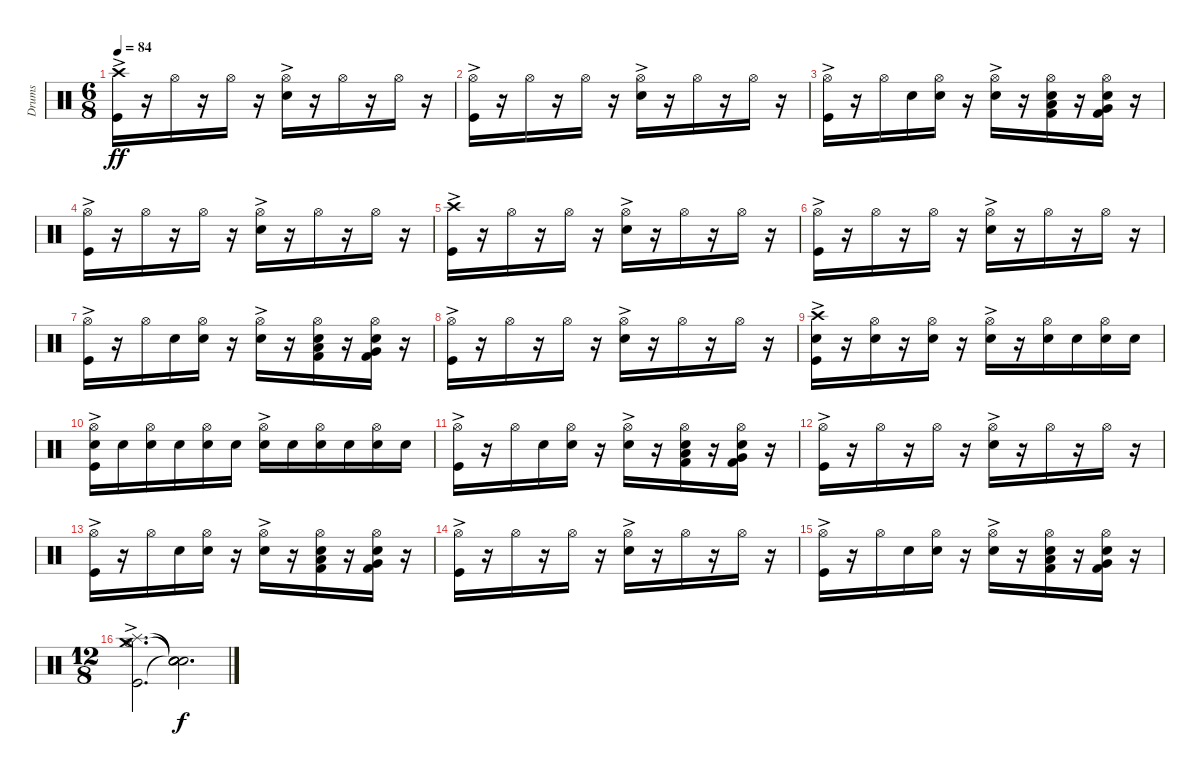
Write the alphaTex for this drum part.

\track ("Drums" "Drums") {instrument percussion}
\staff {score}
\articulation defaults
\ts (6 8)
\tempo 84
\clef neutral
\ks c
("Crash high (hit)" "Kick (hit)"{ac}).16{dy ff} r.16 "Hi-Hat (open)".16 r.16 "Hi-Hat (open)".16 r.16 ("Hi-Hat (open)" "Snare (hit) 2"{ac}).16 r.16 "Hi-Hat (open)".16 r.16 "Hi-Hat (open)".16 r.16 |
("Hi-Hat (open)" "Kick (hit)"{ac}).16 r.16 "Hi-Hat (open)".16 r.16 "Hi-Hat (open)".16 r.16 ("Hi-Hat (open)" "Snare (hit) 2"{ac}).16 r.16 "Hi-Hat (open)".16 r.16 "Hi-Hat (open)".16 r.16 |
("Hi-Hat (open)" "Kick (hit)"{ac}).16 r.16 "Hi-Hat (open)".16 "Snare (hit) 2".16 ("Hi-Hat (open)" "Snare (hit) 2").16 r.16 ("Hi-Hat (open)" "Snare (hit) 2"{ac}).16 r.16 ("Hi-Hat (open)" "Snare (hit) 2" "Low Tom (hit)" "Kick (hit) 2").16 r.16 ("Hi-Hat (open)" "Snare (hit) 2" "Very Low Tom (hit)" "Kick (hit) 2").16 r.16 |
("Hi-Hat (open)" "Kick (hit)"{ac}).16 r.16 "Hi-Hat (open)".16 r.16 "Hi-Hat (open)".16 r.16 ("Hi-Hat (open)" "Snare (hit) 2"{ac}).16 r.16 "Hi-Hat (open)".16 r.16 "Hi-Hat (open)".16 r.16 |
("Crash high (hit)" "Kick (hit)"{ac}).16 r.16 "Hi-Hat (open)".16 r.16 "Hi-Hat (open)".16 r.16 ("Hi-Hat (open)" "Snare (hit) 2"{ac}).16 r.16 "Hi-Hat (open)".16 r.16 "Hi-Hat (open)".16 r.16 |
("Hi-Hat (open)" "Kick (hit)"{ac}).16 r.16 "Hi-Hat (open)".16 r.16 "Hi-Hat (open)".16 r.16 ("Hi-Hat (open)" "Snare (hit) 2"{ac}).16 r.16 "Hi-Hat (open)".16 r.16 "Hi-Hat (open)".16 r.16 |
("Hi-Hat (open)" "Kick (hit)"{ac}).16 r.16 "Hi-Hat (open)".16 "Snare (hit) 2".16 ("Hi-Hat (open)" "Snare (hit) 2").16 r.16 ("Hi-Hat (open)" "Snare (hit) 2"{ac}).16 r.16 ("Hi-Hat (open)" "Snare (hit) 2" "Low Tom (hit)" "Kick (hit) 2").16 r.16 ("Hi-Hat (open)" "Snare (hit) 2" "Very Low Tom (hit)" "Kick (hit) 2").16 r.16 |
("Hi-Hat (open)" "Kick (hit)"{ac}).16 r.16 "Hi-Hat (open)".16 r.16 "Hi-Hat (open)".16 r.16 ("Hi-Hat (open)" "Snare (hit) 2"{ac}).16 r.16 "Hi-Hat (open)".16 r.16 "Hi-Hat (open)".16 r.16 |
("Crash high (hit)" "Snare (hit) 2" "Kick (hit)"{ac}).16 r.16 ("Hi-Hat (open)" "Snare (hit) 2").16 r.16 ("Hi-Hat (open)" "Snare (hit) 2").16 r.16 ("Hi-Hat (open)" "Snare (hit) 2"{ac}).16 r.16 ("Hi-Hat (open)" "Snare (hit) 2").16 "Snare (hit) 2".16 ("Hi-Hat (open)" "Snare (hit) 2").16 "Snare (hit) 2".16 |
("Hi-Hat (open)" "Snare (hit) 2" "Kick (hit)"{ac}).16 "Snare (hit) 2".16 ("Hi-Hat (open)" "Snare (hit) 2").16 "Snare (hit) 2".16 ("Hi-Hat (open)" "Snare (hit) 2").16 "Snare (hit) 2".16 ("Hi-Hat (open)" "Snare (hit) 2"{ac}).16 "Snare (hit) 2".16 ("Hi-Hat (open)" "Snare (hit) 2").16 "Snare (hit) 2".16 ("Hi-Hat (open)" "Snare (hit) 2").16 "Snare (hit) 2".16 |
("Hi-Hat (open)" "Kick (hit)"{ac}).16 r.16 "Hi-Hat (open)".16 "Snare (hit) 2".16 ("Hi-Hat (open)" "Snare (hit) 2").16 r.16 ("Hi-Hat (open)" "Snare (hit) 2"{ac}).16 r.16 ("Hi-Hat (open)" "Snare (hit) 2" "Low Tom (hit)" "Kick (hit) 2").16 r.16 ("Hi-Hat (open)" "Snare (hit) 2" "Very Low Tom (hit)" "Kick (hit) 2").16 r.16 |
("Hi-Hat (open)" "Kick (hit)"{ac}).16 r.16 "Hi-Hat (open)".16 r.16 "Hi-Hat (open)".16 r.16 ("Hi-Hat (open)" "Snare (hit) 2"{ac}).16 r.16 "Hi-Hat (open)".16 r.16 "Hi-Hat (open)".16 r.16 |
("Hi-Hat (open)" "Kick (hit)"{ac}).16 r.16 "Hi-Hat (open)".16 "Snare (hit) 2".16 ("Hi-Hat (open)" "Snare (hit) 2").16 r.16 ("Hi-Hat (open)" "Snare (hit) 2"{ac}).16 r.16 ("Hi-Hat (open)" "Snare (hit) 2" "Low Tom (hit)" "Kick (hit) 2").16 r.16 ("Hi-Hat (open)" "Snare (hit) 2" "Very Low Tom (hit)" "Kick (hit) 2").16 r.16 |
("Hi-Hat (open)" "Kick (hit)"{ac}).16 r.16 "Hi-Hat (open)".16 r.16 "Hi-Hat (open)".16 r.16 ("Hi-Hat (open)" "Snare (hit) 2"{ac}).16 r.16 "Hi-Hat (open)".16 r.16 "Hi-Hat (open)".16 r.16 |
("Hi-Hat (open)" "Kick (hit)"{ac}).16 r.16 "Hi-Hat (open)".16 "Snare (hit) 2".16 ("Hi-Hat (open)" "Snare (hit) 2").16 r.16 ("Hi-Hat (open)" "Snare (hit) 2"{ac}).16 r.16 ("Hi-Hat (open)" "Snare (hit) 2" "Low Tom (hit)" "Kick (hit) 2").16 r.16 ("Hi-Hat (open)" "Snare (hit) 2" "Very Low Tom (hit)" "Kick (hit) 2").16 r.16 |
\ts (12 8)
("Splash (hit)" "Crash medium (hit)" "Hi-Hat (open)" "Kick (hit)"{ac}).2{d} ("Snare (hit)"{t} "Snare (hit)"{t} "Snare (hit)"{t} "Snare (hit)"{t}).2{d dy f}
